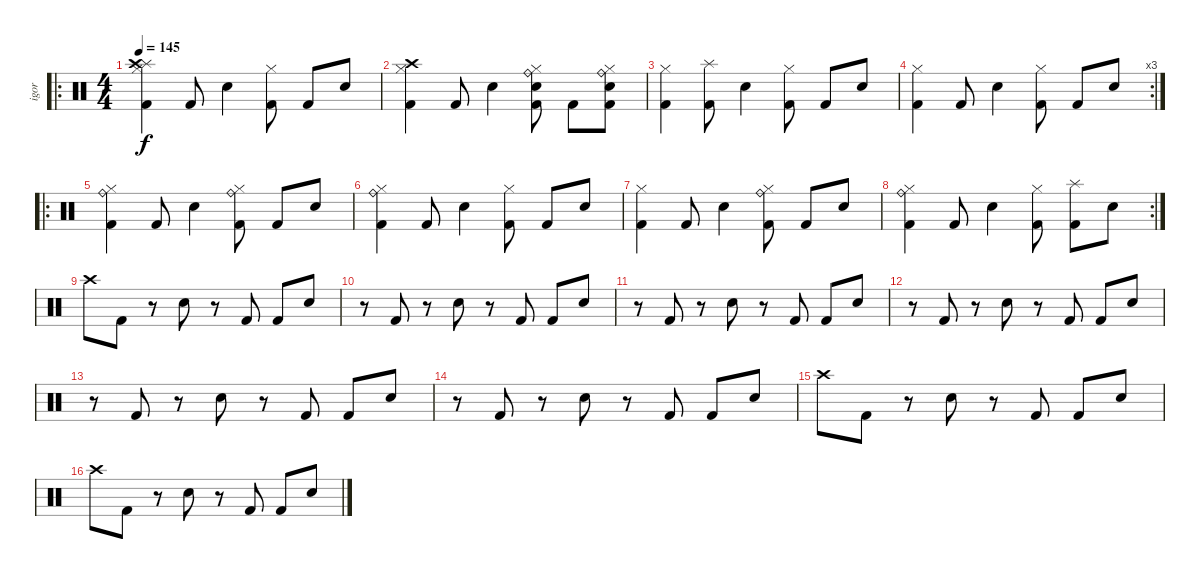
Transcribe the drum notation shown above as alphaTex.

\track ("igor" "igor") {instrument percussion}
\staff {score}
\articulation defaults
\ro
\ts (4 4)
\tempo 145
\clef neutral
\ks c
("Splash (hit)" "Crash high (hit)" "Hi-Hat (closed)" "Kick (hit) 2").4{dy f} "Kick (hit) 2".8 "Electric Snare (hit)".4 ("Hi-Hat (closed)" "Kick (hit) 2").8 "Kick (hit) 2".8 "Electric Snare (hit)".8 |
("Crash high (hit)" "Hi-Hat (closed)" "Kick (hit) 2").4 "Kick (hit) 2".8 "Electric Snare (hit)".4 ("Ride (bell)" "Electric Snare (hit)" "Hi-Hat (closed)" "Kick (hit) 2").8 "Kick (hit) 2".8 ("Ride (bell)" "Kick (hit) 2" "Hi-Hat (closed)" "Electric Snare (hit)").8 |
("Hi-Hat (closed)" "Kick (hit) 2").4 ("Splash (hit)" "Kick (hit) 2").8 "Electric Snare (hit)".4 ("Hi-Hat (closed)" "Kick (hit) 2").8 "Kick (hit) 2".8 "Electric Snare (hit)".8 |
\rc 3
("Hi-Hat (closed)" "Kick (hit) 2").4 "Kick (hit) 2".8 "Electric Snare (hit)".4 ("Hi-Hat (closed)" "Kick (hit) 2").8 "Kick (hit) 2".8 "Electric Snare (hit)".8 |
\ro
("Ride (bell)" "Hi-Hat (closed)" "Kick (hit) 2").4 "Kick (hit) 2".8 "Electric Snare (hit)".4 ("Ride (bell)" "Hi-Hat (closed)" "Kick (hit) 2").8 "Kick (hit) 2".8 "Electric Snare (hit)".8 |
("Ride (bell)" "Hi-Hat (closed)" "Kick (hit) 2").4 "Kick (hit) 2".8 "Electric Snare (hit)".4 ("Hi-Hat (closed)" "Kick (hit) 2").8 "Kick (hit) 2".8 "Electric Snare (hit)".8 |
("Hi-Hat (closed)" "Kick (hit) 2").4 "Kick (hit) 2".8 "Electric Snare (hit)".4 ("Ride (bell)" "Hi-Hat (closed)" "Kick (hit) 2").8 "Kick (hit) 2".8 "Electric Snare (hit)".8 |
\rc 2
("Ride (bell)" "Hi-Hat (closed)" "Kick (hit) 2").4 "Kick (hit) 2".8 "Electric Snare (hit)".4 ("Hi-Hat (closed)" "Kick (hit) 2").8 ("Splash (hit)" "Kick (hit) 2").8 "Electric Snare (hit)".8 |
"Crash high (hit)".8 "Kick (hit) 2".8 r.8 "Electric Snare (hit)".8 r.8 "Kick (hit) 2".8 "Kick (hit) 2".8 "Electric Snare (hit)".8 |
r.8 "Kick (hit) 2".8 r.8 "Electric Snare (hit)".8 r.8 "Kick (hit) 2".8 "Kick (hit) 2".8 "Electric Snare (hit)".8 |
r.8 "Kick (hit) 2".8 r.8 "Electric Snare (hit)".8 r.8 "Kick (hit) 2".8 "Kick (hit) 2".8 "Electric Snare (hit)".8 |
r.8 "Kick (hit) 2".8 r.8 "Electric Snare (hit)".8 r.8 "Kick (hit) 2".8 "Kick (hit) 2".8 "Electric Snare (hit)".8 |
r.8 "Kick (hit) 2".8 r.8 "Electric Snare (hit)".8 r.8 "Kick (hit) 2".8 "Kick (hit) 2".8 "Electric Snare (hit)".8 |
r.8 "Kick (hit) 2".8 r.8 "Electric Snare (hit)".8 r.8 "Kick (hit) 2".8 "Kick (hit) 2".8 "Electric Snare (hit)".8 |
"Crash high (hit)".8 "Kick (hit) 2".8 r.8 "Electric Snare (hit)".8 r.8 "Kick (hit) 2".8 "Kick (hit) 2".8 "Electric Snare (hit)".8 |
"Crash high (hit)".8 "Kick (hit) 2".8 r.8 "Electric Snare (hit)".8 r.8 "Kick (hit) 2".8 "Kick (hit) 2".8 "Electric Snare (hit)".8
